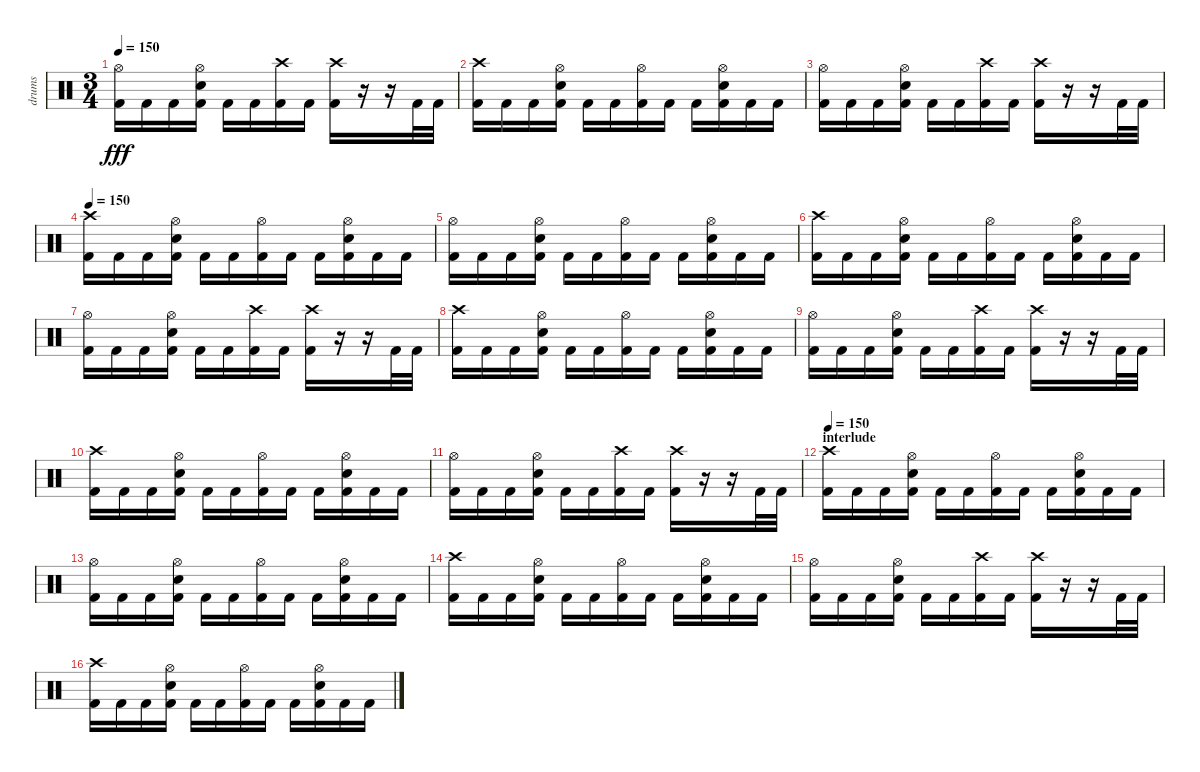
\track ("drums" "drums") {instrument percussion}
\staff {score}
\articulation defaults
\ts (3 4)
\tempo 150
\clef neutral
\ks c
("Hi-Hat (open)" "Kick (hit) 2").16{dy fff} "Kick (hit) 2".16 "Kick (hit) 2".16 ("Hi-Hat (open)" "Snare (hit) 2" "Kick (hit) 2").16 "Kick (hit) 2".16 "Kick (hit) 2".16 ("Crash high (hit)" "Kick (hit) 2").16 "Kick (hit) 2".16 ("Crash high (hit)" "Kick (hit) 2").16 r.16 r.16 "Kick (hit) 2".32 "Kick (hit) 2".32 |
("Crash high (hit)" "Kick (hit) 2").16 "Kick (hit) 2".16 "Kick (hit) 2".16 ("Hi-Hat (open)" "Snare (hit) 2" "Kick (hit) 2").16 "Kick (hit) 2".16 "Kick (hit) 2".16 ("Hi-Hat (open)" "Kick (hit) 2").16 "Kick (hit) 2".16 "Kick (hit) 2".16 ("Hi-Hat (open)" "Snare (hit) 2" "Kick (hit) 2").16 "Kick (hit) 2".16 "Kick (hit) 2".16 |
("Hi-Hat (open)" "Kick (hit) 2").16 "Kick (hit) 2".16 "Kick (hit) 2".16 ("Hi-Hat (open)" "Snare (hit) 2" "Kick (hit) 2").16 "Kick (hit) 2".16 "Kick (hit) 2".16 ("Crash high (hit)" "Kick (hit) 2").16 "Kick (hit) 2".16 ("Crash high (hit)" "Kick (hit) 2").16 r.16 r.16 "Kick (hit) 2".32 "Kick (hit) 2".32 |
\tempo 150
("Crash high (hit)" "Kick (hit) 2").16 "Kick (hit) 2".16 "Kick (hit) 2".16 ("Hi-Hat (open)" "Snare (hit) 2" "Kick (hit) 2").16 "Kick (hit) 2".16 "Kick (hit) 2".16 ("Hi-Hat (open)" "Kick (hit) 2").16 "Kick (hit) 2".16 "Kick (hit) 2".16 ("Hi-Hat (open)" "Snare (hit) 2" "Kick (hit) 2").16 "Kick (hit) 2".16 "Kick (hit) 2".16 |
("Hi-Hat (open)" "Kick (hit) 2").16 "Kick (hit) 2".16 "Kick (hit) 2".16 ("Hi-Hat (open)" "Snare (hit) 2" "Kick (hit) 2").16 "Kick (hit) 2".16 "Kick (hit) 2".16 ("Hi-Hat (open)" "Kick (hit) 2").16 "Kick (hit) 2".16 "Kick (hit) 2".16 ("Hi-Hat (open)" "Snare (hit) 2" "Kick (hit) 2").16 "Kick (hit) 2".16 "Kick (hit) 2".16 |
("Crash high (hit)" "Kick (hit) 2").16 "Kick (hit) 2".16 "Kick (hit) 2".16 ("Hi-Hat (open)" "Snare (hit) 2" "Kick (hit) 2").16 "Kick (hit) 2".16 "Kick (hit) 2".16 ("Hi-Hat (open)" "Kick (hit) 2").16 "Kick (hit) 2".16 "Kick (hit) 2".16 ("Hi-Hat (open)" "Snare (hit) 2" "Kick (hit) 2").16 "Kick (hit) 2".16 "Kick (hit) 2".16 |
("Hi-Hat (open)" "Kick (hit) 2").16 "Kick (hit) 2".16 "Kick (hit) 2".16 ("Hi-Hat (open)" "Snare (hit) 2" "Kick (hit) 2").16 "Kick (hit) 2".16 "Kick (hit) 2".16 ("Crash high (hit)" "Kick (hit) 2").16 "Kick (hit) 2".16 ("Crash high (hit)" "Kick (hit) 2").16 r.16 r.16 "Kick (hit) 2".32 "Kick (hit) 2".32 |
("Crash high (hit)" "Kick (hit) 2").16 "Kick (hit) 2".16 "Kick (hit) 2".16 ("Hi-Hat (open)" "Snare (hit) 2" "Kick (hit) 2").16 "Kick (hit) 2".16 "Kick (hit) 2".16 ("Hi-Hat (open)" "Kick (hit) 2").16 "Kick (hit) 2".16 "Kick (hit) 2".16 ("Hi-Hat (open)" "Snare (hit) 2" "Kick (hit) 2").16 "Kick (hit) 2".16 "Kick (hit) 2".16 |
("Hi-Hat (open)" "Kick (hit) 2").16 "Kick (hit) 2".16 "Kick (hit) 2".16 ("Hi-Hat (open)" "Snare (hit) 2" "Kick (hit) 2").16 "Kick (hit) 2".16 "Kick (hit) 2".16 ("Crash high (hit)" "Kick (hit) 2").16 "Kick (hit) 2".16 ("Crash high (hit)" "Kick (hit) 2").16 r.16 r.16 "Kick (hit) 2".32 "Kick (hit) 2".32 |
("Crash high (hit)" "Kick (hit) 2").16 "Kick (hit) 2".16 "Kick (hit) 2".16 ("Hi-Hat (open)" "Snare (hit) 2" "Kick (hit) 2").16 "Kick (hit) 2".16 "Kick (hit) 2".16 ("Hi-Hat (open)" "Kick (hit) 2").16 "Kick (hit) 2".16 "Kick (hit) 2".16 ("Hi-Hat (open)" "Snare (hit) 2" "Kick (hit) 2").16 "Kick (hit) 2".16 "Kick (hit) 2".16 |
("Hi-Hat (open)" "Kick (hit) 2").16 "Kick (hit) 2".16 "Kick (hit) 2".16 ("Hi-Hat (open)" "Snare (hit) 2" "Kick (hit) 2").16 "Kick (hit) 2".16 "Kick (hit) 2".16 ("Crash high (hit)" "Kick (hit) 2").16 "Kick (hit) 2".16 ("Crash high (hit)" "Kick (hit) 2").16 r.16 r.16 "Kick (hit) 2".32 "Kick (hit) 2".32 |
\section ("" "interlude")
\tempo 150
("Crash high (hit)" "Kick (hit) 2").16 "Kick (hit) 2".16 "Kick (hit) 2".16 ("Hi-Hat (open)" "Snare (hit) 2" "Kick (hit) 2").16 "Kick (hit) 2".16 "Kick (hit) 2".16 ("Hi-Hat (open)" "Kick (hit) 2").16 "Kick (hit) 2".16 "Kick (hit) 2".16 ("Hi-Hat (open)" "Snare (hit) 2" "Kick (hit) 2").16 "Kick (hit) 2".16 "Kick (hit) 2".16 |
("Hi-Hat (open)" "Kick (hit) 2").16 "Kick (hit) 2".16 "Kick (hit) 2".16 ("Hi-Hat (open)" "Snare (hit) 2" "Kick (hit) 2").16 "Kick (hit) 2".16 "Kick (hit) 2".16 ("Hi-Hat (open)" "Kick (hit) 2").16 "Kick (hit) 2".16 "Kick (hit) 2".16 ("Hi-Hat (open)" "Snare (hit) 2" "Kick (hit) 2").16 "Kick (hit) 2".16 "Kick (hit) 2".16 |
("Crash high (hit)" "Kick (hit) 2").16 "Kick (hit) 2".16 "Kick (hit) 2".16 ("Hi-Hat (open)" "Snare (hit) 2" "Kick (hit) 2").16 "Kick (hit) 2".16 "Kick (hit) 2".16 ("Hi-Hat (open)" "Kick (hit) 2").16 "Kick (hit) 2".16 "Kick (hit) 2".16 ("Hi-Hat (open)" "Snare (hit) 2" "Kick (hit) 2").16 "Kick (hit) 2".16 "Kick (hit) 2".16 |
("Hi-Hat (open)" "Kick (hit) 2").16 "Kick (hit) 2".16 "Kick (hit) 2".16 ("Hi-Hat (open)" "Snare (hit) 2" "Kick (hit) 2").16 "Kick (hit) 2".16 "Kick (hit) 2".16 ("Crash high (hit)" "Kick (hit) 2").16 "Kick (hit) 2".16 ("Crash high (hit)" "Kick (hit) 2").16 r.16 r.16 "Kick (hit) 2".32 "Kick (hit) 2".32 |
("Crash high (hit)" "Kick (hit) 2").16 "Kick (hit) 2".16 "Kick (hit) 2".16 ("Hi-Hat (open)" "Snare (hit) 2" "Kick (hit) 2").16 "Kick (hit) 2".16 "Kick (hit) 2".16 ("Hi-Hat (open)" "Kick (hit) 2").16 "Kick (hit) 2".16 "Kick (hit) 2".16 ("Hi-Hat (open)" "Snare (hit) 2" "Kick (hit) 2").16 "Kick (hit) 2".16 "Kick (hit) 2".16
